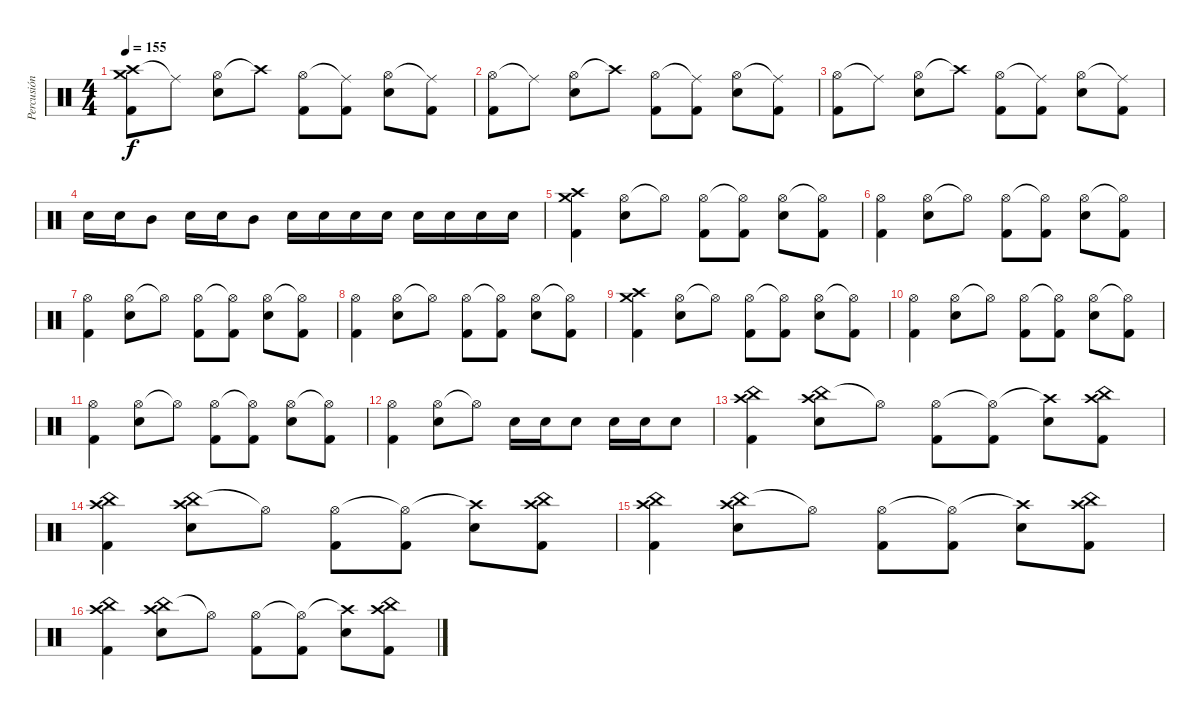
\track ("Percusión" "Percusión") {instrument percussion}
\staff {score}
\articulation defaults
\ts (4 4)
\tempo 155
\clef neutral
\ks c
("Crash high (hit)" "Crash medium (hit)" "Kick (hit) 2").8{dy f} "Ride (middle)"{t}.8 ("Hi-Hat (open)" "Electric Snare (hit)").8 "Crash high (hit)"{t}.8 ("Hi-Hat (open)" "Kick (hit) 2").8 ("Ride (middle)"{t} "Kick (hit) 2").8 ("Hi-Hat (open)" "Electric Snare (hit)").8 ("Ride (middle)"{t} "Kick (hit) 2").8 |
("Hi-Hat (open)" "Kick (hit) 2").8 "Ride (middle)"{t}.8 ("Hi-Hat (open)" "Electric Snare (hit)").8 "Crash high (hit)"{t}.8 ("Hi-Hat (open)" "Kick (hit) 2").8 ("Ride (middle)"{t} "Kick (hit) 2").8 ("Hi-Hat (open)" "Electric Snare (hit)").8 ("Ride (middle)"{t} "Kick (hit) 2").8 |
("Hi-Hat (open)" "Kick (hit) 2").8 "Ride (middle)"{t}.8 ("Hi-Hat (open)" "Electric Snare (hit)").8 "Crash high (hit)"{t}.8 ("Hi-Hat (open)" "Kick (hit) 2").8 ("Ride (middle)"{t} "Kick (hit) 2").8 ("Hi-Hat (open)" "Electric Snare (hit)").8 ("Ride (middle)"{t} "Kick (hit) 2").8 |
"Electric Snare (hit)".16 "Electric Snare (hit)".16 "Mid Tom (hit)".8 "Electric Snare (hit)".16 "Electric Snare (hit)".16 "Mid Tom (hit)".8 "Electric Snare (hit)".16 "Electric Snare (hit)".16 "Electric Snare (hit)".16 "Electric Snare (hit)".16 "Electric Snare (hit)".16 "Electric Snare (hit)".16 "Electric Snare (hit)".16 "Electric Snare (hit)".16 |
("Crash high (hit)" "Crash medium (hit)" "Kick (hit) 2").4 ("Hi-Hat (open)" "Electric Snare (hit)").8 "Hi-Hat (open)"{t}.8 ("Hi-Hat (open)" "Kick (hit) 2").8 ("Hi-Hat (open)"{t} "Kick (hit) 2").8 ("Hi-Hat (open)" "Electric Snare (hit)").8 ("Hi-Hat (open)"{t} "Kick (hit) 2").8 |
("Hi-Hat (open)" "Kick (hit) 2").4 ("Hi-Hat (open)" "Electric Snare (hit)").8 "Hi-Hat (open)"{t}.8 ("Hi-Hat (open)" "Kick (hit) 2").8 ("Hi-Hat (open)"{t} "Kick (hit) 2").8 ("Hi-Hat (open)" "Electric Snare (hit)").8 ("Hi-Hat (open)"{t} "Kick (hit) 2").8 |
("Hi-Hat (open)" "Kick (hit) 2").4 ("Hi-Hat (open)" "Electric Snare (hit)").8 "Hi-Hat (open)"{t}.8 ("Hi-Hat (open)" "Kick (hit) 2").8 ("Hi-Hat (open)"{t} "Kick (hit) 2").8 ("Hi-Hat (open)" "Electric Snare (hit)").8 ("Hi-Hat (open)"{t} "Kick (hit) 2").8 |
("Hi-Hat (open)" "Kick (hit) 2").4 ("Hi-Hat (open)" "Electric Snare (hit)").8 "Hi-Hat (open)"{t}.8 ("Hi-Hat (open)" "Kick (hit) 2").8 ("Hi-Hat (open)"{t} "Kick (hit) 2").8 ("Hi-Hat (open)" "Electric Snare (hit)").8 ("Hi-Hat (open)"{t} "Kick (hit) 2").8 |
("Crash high (hit)" "Crash medium (hit)" "Kick (hit) 2").4 ("Hi-Hat (open)" "Electric Snare (hit)").8 "Hi-Hat (open)"{t}.8 ("Hi-Hat (open)" "Kick (hit) 2").8 ("Hi-Hat (open)"{t} "Kick (hit) 2").8 ("Hi-Hat (open)" "Electric Snare (hit)").8 ("Hi-Hat (open)"{t} "Kick (hit) 2").8 |
("Hi-Hat (open)" "Kick (hit) 2").4 ("Hi-Hat (open)" "Electric Snare (hit)").8 "Hi-Hat (open)"{t}.8 ("Hi-Hat (open)" "Kick (hit) 2").8 ("Hi-Hat (open)"{t} "Kick (hit) 2").8 ("Hi-Hat (open)" "Electric Snare (hit)").8 ("Hi-Hat (open)"{t} "Kick (hit) 2").8 |
("Hi-Hat (open)" "Kick (hit) 2").4 ("Hi-Hat (open)" "Electric Snare (hit)").8 "Hi-Hat (open)"{t}.8 ("Hi-Hat (open)" "Kick (hit) 2").8 ("Hi-Hat (open)"{t} "Kick (hit) 2").8 ("Hi-Hat (open)" "Electric Snare (hit)").8 ("Hi-Hat (open)"{t} "Kick (hit) 2").8 |
("Hi-Hat (open)" "Kick (hit) 2").4 ("Hi-Hat (open)" "Electric Snare (hit)").8 "Hi-Hat (open)"{t}.8 "Electric Snare (hit)".16 "Electric Snare (hit)".16 "Electric Snare (hit)".8 "Electric Snare (hit)".16 "Electric Snare (hit)".16 "Electric Snare (hit)".8 |
("China (hit)" "Crash high (hit)" "Kick (hit) 2").4 ("China (hit)" "Crash high (hit)" "Electric Snare (hit)").8 "Hi-Hat (open)"{t}.8 ("Hi-Hat (open)" "Kick (hit) 2").8 ("Hi-Hat (open)"{t} "Kick (hit) 2").8 ("Crash high (hit)"{t} "Electric Snare (hit)").8 ("China (hit)" "Crash high (hit)" "Kick (hit) 2").8 |
("China (hit)" "Crash high (hit)" "Kick (hit) 2").4 ("China (hit)" "Crash high (hit)" "Electric Snare (hit)").8 "Hi-Hat (open)"{t}.8 ("Hi-Hat (open)" "Kick (hit) 2").8 ("Hi-Hat (open)"{t} "Kick (hit) 2").8 ("Crash high (hit)"{t} "Electric Snare (hit)").8 ("China (hit)" "Crash high (hit)" "Kick (hit) 2").8 |
("China (hit)" "Crash high (hit)" "Kick (hit) 2").4 ("China (hit)" "Crash high (hit)" "Electric Snare (hit)").8 "Hi-Hat (open)"{t}.8 ("Hi-Hat (open)" "Kick (hit) 2").8 ("Hi-Hat (open)"{t} "Kick (hit) 2").8 ("Crash high (hit)"{t} "Electric Snare (hit)").8 ("China (hit)" "Crash high (hit)" "Kick (hit) 2").8 |
("China (hit)" "Crash high (hit)" "Kick (hit) 2").4 ("China (hit)" "Crash high (hit)" "Electric Snare (hit)").8 "Hi-Hat (open)"{t}.8 ("Hi-Hat (open)" "Kick (hit) 2").8 ("Hi-Hat (open)"{t} "Kick (hit) 2").8 ("Crash high (hit)"{t} "Electric Snare (hit)").8 ("China (hit)" "Crash high (hit)" "Kick (hit) 2").8
